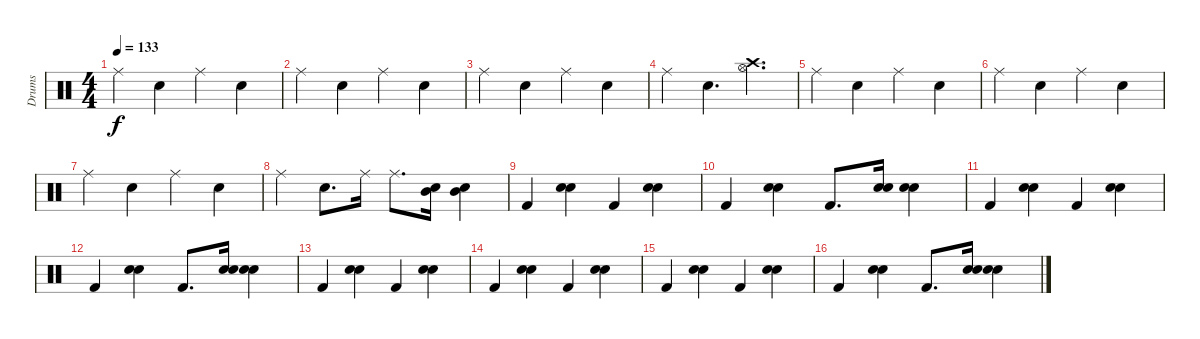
\track ("Drums" "Drums") {instrument percussion}
\staff {score}
\articulation defaults
\ts (4 4)
\tempo 133
\clef neutral
\ks c "Ride (middle)".4{dy f} "Hand Clap (hit)".4 "Ride (middle)".4 "Hand Clap (hit)".4
|
"Ride (middle)".4 "Hand Clap (hit)".4 "Ride (middle)".4 "Hand Clap (hit)".4 |
"Ride (middle)".4 "Hand Clap (hit)".4 "Ride (middle)".4 "Hand Clap (hit)".4 |
"Ride (middle)".4 "Hand Clap (hit)".4{d} ("Hi-Hat (open)" "Crash high (hit)").4{d} |
"Ride (middle)".4 "Hand Clap (hit)".4 "Ride (middle)".4 "Hand Clap (hit)".4 |
"Ride (middle)".4 "Hand Clap (hit)".4 "Ride (middle)".4 "Hand Clap (hit)".4 |
"Ride (middle)".4 "Hand Clap (hit)".4 "Ride (middle)".4 "Hand Clap (hit)".4 |
"Ride (middle)".4 "Hand Clap (hit)".8{d} "Ride (middle)".16 "Ride (middle)".8{d} ("Mid Tom (hit)" "Hand Clap (hit)").16 ("Mid Tom (hit)" "Hand Clap (hit)").4 |
"Kick (hit) 2".4 ("Electric Snare (hit)" "Hand Clap (hit)").4 "Kick (hit) 2".4 ("Electric Snare (hit)" "Hand Clap (hit)").4 |
"Kick (hit) 2".4 ("Electric Snare (hit)" "Hand Clap (hit)").4 "Kick (hit) 2".8{d} ("Electric Snare (hit)" "Hand Clap (hit)").16 ("Electric Snare (hit)" "Hand Clap (hit)").4 |
"Kick (hit) 2".4 ("Electric Snare (hit)" "Hand Clap (hit)").4 "Kick (hit) 2".4 ("Electric Snare (hit)" "Hand Clap (hit)").4 |
"Kick (hit) 2".4 ("Electric Snare (hit)" "Hand Clap (hit)").4 "Kick (hit) 2".8{d} ("Electric Snare (hit)" "Hand Clap (hit)").16 ("Electric Snare (hit)" "Hand Clap (hit)").4 |
"Kick (hit) 2".4 ("Electric Snare (hit)" "Hand Clap (hit)").4 "Kick (hit) 2".4 ("Electric Snare (hit)" "Hand Clap (hit)").4 |
"Kick (hit) 2".4 ("Electric Snare (hit)" "Hand Clap (hit)").4 "Kick (hit) 2".4 ("Electric Snare (hit)" "Hand Clap (hit)").4 |
"Kick (hit) 2".4 ("Electric Snare (hit)" "Hand Clap (hit)").4 "Kick (hit) 2".4 ("Electric Snare (hit)" "Hand Clap (hit)").4 |
"Kick (hit) 2".4 ("Electric Snare (hit)" "Hand Clap (hit)").4 "Kick (hit) 2".8{d} ("Electric Snare (hit)" "Hand Clap (hit)").16 ("Electric Snare (hit)" "Hand Clap (hit)").4
